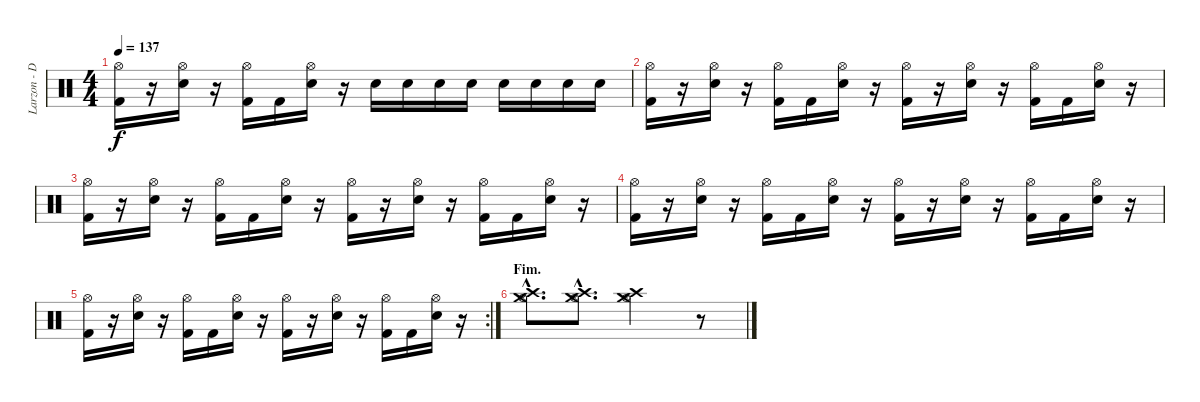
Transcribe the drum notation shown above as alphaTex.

\track ("Larzon - Drums" "Larzon - D") {instrument percussion}
\staff {score}
\articulation defaults
\ts (4 4)
\tempo 137
\clef neutral
\ks c
("Kick (hit) 2" "Hi-Hat (open)").16{dy f} r.16 ("Snare (hit) 2" "Hi-Hat (open)").16 r.16 ("Kick (hit) 2" "Hi-Hat (open)").16 "Kick (hit) 2".16 ("Snare (hit) 2" "Hi-Hat (open)").16 r.16 "Snare (hit) 2".16 "Snare (hit) 2".16 "Snare (hit) 2".16 "Snare (hit) 2".16 "Snare (hit) 2".16 "Snare (hit) 2".16 "Snare (hit) 2".16 "Snare (hit) 2".16 |
("Kick (hit) 2" "Hi-Hat (open)").16 r.16 ("Snare (hit) 2" "Hi-Hat (open)").16 r.16 ("Kick (hit) 2" "Hi-Hat (open)").16 "Kick (hit) 2".16 ("Snare (hit) 2" "Hi-Hat (open)").16 r.16 ("Kick (hit) 2" "Hi-Hat (open)").16 r.16 ("Snare (hit) 2" "Hi-Hat (open)").16 r.16 ("Kick (hit) 2" "Hi-Hat (open)").16 "Kick (hit) 2".16 ("Snare (hit) 2" "Hi-Hat (open)").16 r.16 |
("Kick (hit) 2" "Hi-Hat (open)").16 r.16 ("Snare (hit) 2" "Hi-Hat (open)").16 r.16 ("Kick (hit) 2" "Hi-Hat (open)").16 "Kick (hit) 2".16 ("Snare (hit) 2" "Hi-Hat (open)").16 r.16 ("Kick (hit) 2" "Hi-Hat (open)").16 r.16 ("Snare (hit) 2" "Hi-Hat (open)").16 r.16 ("Kick (hit) 2" "Hi-Hat (open)").16 "Kick (hit) 2".16 ("Snare (hit) 2" "Hi-Hat (open)").16 r.16 |
("Kick (hit) 2" "Hi-Hat (open)").16 r.16 ("Snare (hit) 2" "Hi-Hat (open)").16 r.16 ("Kick (hit) 2" "Hi-Hat (open)").16 "Kick (hit) 2".16 ("Snare (hit) 2" "Hi-Hat (open)").16 r.16 ("Kick (hit) 2" "Hi-Hat (open)").16 r.16 ("Snare (hit) 2" "Hi-Hat (open)").16 r.16 ("Kick (hit) 2" "Hi-Hat (open)").16 "Kick (hit) 2".16 ("Snare (hit) 2" "Hi-Hat (open)").16 r.16 |
\rc 2
("Kick (hit) 2" "Hi-Hat (open)").16 r.16 ("Snare (hit) 2" "Hi-Hat (open)").16 r.16 ("Kick (hit) 2" "Hi-Hat (open)").16 "Kick (hit) 2".16 ("Snare (hit) 2" "Hi-Hat (open)").16 r.16 ("Kick (hit) 2" "Hi-Hat (open)").16 r.16 ("Snare (hit) 2" "Hi-Hat (open)").16 r.16 ("Kick (hit) 2" "Hi-Hat (open)").16 "Kick (hit) 2".16 ("Snare (hit) 2" "Hi-Hat (open)").16 r.16 |
\section ("" "Fim.")
("Hi-Hat (open)"{hac} "Crash medium (hit)"{hac} "Crash high (hit)"{hac}).8{d} ("Hi-Hat (open)"{hac} "Crash medium (hit)"{hac} "Crash high (hit)"{hac}).8{d} ("Hi-Hat (open)" "Crash medium (hit)" "Crash high (hit)").2 r.8
